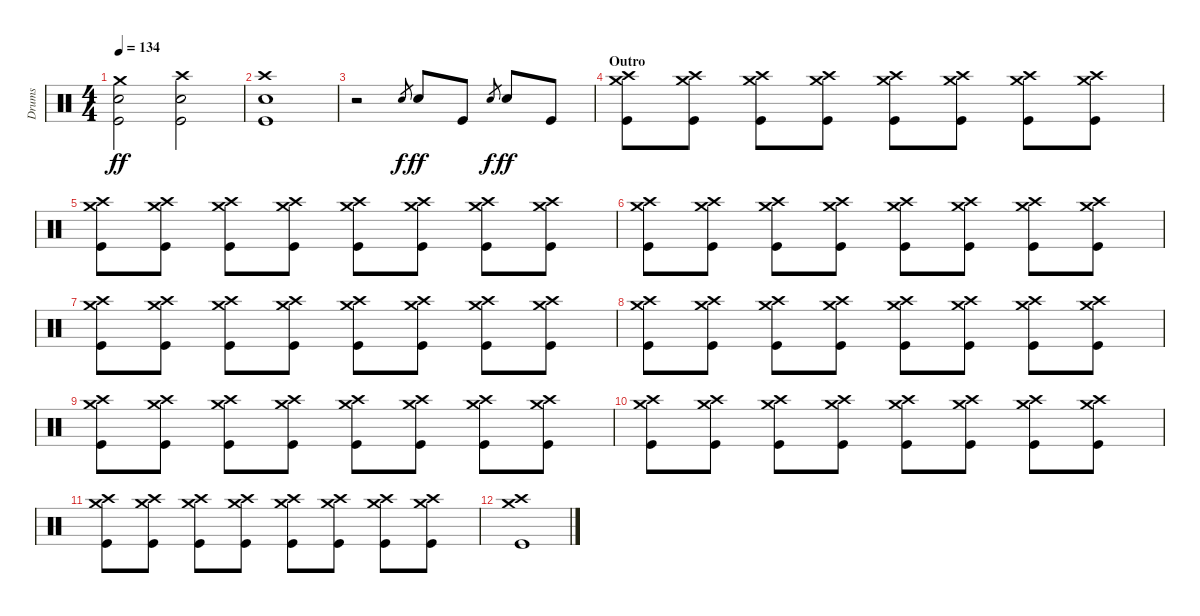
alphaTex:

\track ("Drums" "Drums") {instrument percussion}
\staff {score}
\articulation defaults
\ts (4 4)
\tempo 134
\clef neutral
\ks c
("Crash medium (hit)" "Snare (hit) 2" "Kick (hit)").2{dy ff} ("Crash high (hit)" "Snare (hit) 2" "Kick (hit)").2 |
("Crash high (hit)" "Snare (hit) 2" "Kick (hit)").1 |
r.2 "Snare (hit) 2".8{gr dy f} "Snare (hit) 2".8{dy ff} "Kick (hit)".8 "Snare (hit) 2".8{gr dy f} "Snare (hit) 2".8{dy ff} "Kick (hit)".8 |
\section ("" "Outro")
("Crash high (hit)" "Crash medium (hit)" "Kick (hit)").8 ("Crash high (hit)" "Crash medium (hit)" "Kick (hit)").8 ("Crash high (hit)" "Crash medium (hit)" "Kick (hit)").8 ("Crash high (hit)" "Crash medium (hit)" "Kick (hit)").8 ("Crash high (hit)" "Crash medium (hit)" "Kick (hit)").8 ("Crash high (hit)" "Crash medium (hit)" "Kick (hit)").8 ("Crash high (hit)" "Crash medium (hit)" "Kick (hit)").8 ("Crash high (hit)" "Crash medium (hit)" "Kick (hit)").8 |
("Crash high (hit)" "Crash medium (hit)" "Kick (hit)").8 ("Crash high (hit)" "Crash medium (hit)" "Kick (hit)").8 ("Crash high (hit)" "Crash medium (hit)" "Kick (hit)").8 ("Crash high (hit)" "Crash medium (hit)" "Kick (hit)").8 ("Crash high (hit)" "Crash medium (hit)" "Kick (hit)").8 ("Crash high (hit)" "Crash medium (hit)" "Kick (hit)").8 ("Crash high (hit)" "Crash medium (hit)" "Kick (hit)").8 ("Crash high (hit)" "Crash medium (hit)" "Kick (hit)").8 |
("Crash high (hit)" "Crash medium (hit)" "Kick (hit)").8 ("Crash high (hit)" "Crash medium (hit)" "Kick (hit)").8 ("Crash high (hit)" "Crash medium (hit)" "Kick (hit)").8 ("Crash high (hit)" "Crash medium (hit)" "Kick (hit)").8 ("Crash high (hit)" "Crash medium (hit)" "Kick (hit)").8 ("Crash high (hit)" "Crash medium (hit)" "Kick (hit)").8 ("Crash high (hit)" "Crash medium (hit)" "Kick (hit)").8 ("Crash high (hit)" "Crash medium (hit)" "Kick (hit)").8 |
("Crash high (hit)" "Crash medium (hit)" "Kick (hit)").8 ("Crash high (hit)" "Crash medium (hit)" "Kick (hit)").8 ("Crash high (hit)" "Crash medium (hit)" "Kick (hit)").8 ("Crash high (hit)" "Crash medium (hit)" "Kick (hit)").8 ("Crash high (hit)" "Crash medium (hit)" "Kick (hit)").8 ("Crash high (hit)" "Crash medium (hit)" "Kick (hit)").8 ("Crash high (hit)" "Crash medium (hit)" "Kick (hit)").8 ("Crash high (hit)" "Crash medium (hit)" "Kick (hit)").8 |
("Crash high (hit)" "Crash medium (hit)" "Kick (hit)").8 ("Crash high (hit)" "Crash medium (hit)" "Kick (hit)").8 ("Crash high (hit)" "Crash medium (hit)" "Kick (hit)").8 ("Crash high (hit)" "Crash medium (hit)" "Kick (hit)").8 ("Crash high (hit)" "Crash medium (hit)" "Kick (hit)").8 ("Crash high (hit)" "Crash medium (hit)" "Kick (hit)").8 ("Crash high (hit)" "Crash medium (hit)" "Kick (hit)").8 ("Crash high (hit)" "Crash medium (hit)" "Kick (hit)").8 |
("Crash high (hit)" "Crash medium (hit)" "Kick (hit)").8 ("Crash high (hit)" "Crash medium (hit)" "Kick (hit)").8 ("Crash high (hit)" "Crash medium (hit)" "Kick (hit)").8 ("Crash high (hit)" "Crash medium (hit)" "Kick (hit)").8 ("Crash high (hit)" "Crash medium (hit)" "Kick (hit)").8 ("Crash high (hit)" "Crash medium (hit)" "Kick (hit)").8 ("Crash high (hit)" "Crash medium (hit)" "Kick (hit)").8 ("Crash high (hit)" "Crash medium (hit)" "Kick (hit)").8 |
("Crash high (hit)" "Crash medium (hit)" "Kick (hit)").8 ("Crash high (hit)" "Crash medium (hit)" "Kick (hit)").8 ("Crash high (hit)" "Crash medium (hit)" "Kick (hit)").8 ("Crash high (hit)" "Crash medium (hit)" "Kick (hit)").8 ("Crash high (hit)" "Crash medium (hit)" "Kick (hit)").8 ("Crash high (hit)" "Crash medium (hit)" "Kick (hit)").8 ("Crash high (hit)" "Crash medium (hit)" "Kick (hit)").8 ("Crash high (hit)" "Crash medium (hit)" "Kick (hit)").8 |
("Crash high (hit)" "Crash medium (hit)" "Kick (hit)").8 ("Crash high (hit)" "Crash medium (hit)" "Kick (hit)").8 ("Crash high (hit)" "Crash medium (hit)" "Kick (hit)").8 ("Crash high (hit)" "Crash medium (hit)" "Kick (hit)").8 ("Crash high (hit)" "Crash medium (hit)" "Kick (hit)").8 ("Crash high (hit)" "Crash medium (hit)" "Kick (hit)").8 ("Crash high (hit)" "Crash medium (hit)" "Kick (hit)").8 ("Crash high (hit)" "Crash medium (hit)" "Kick (hit)").8 |
("Crash high (hit)" "Crash medium (hit)" "Kick (hit)").1
